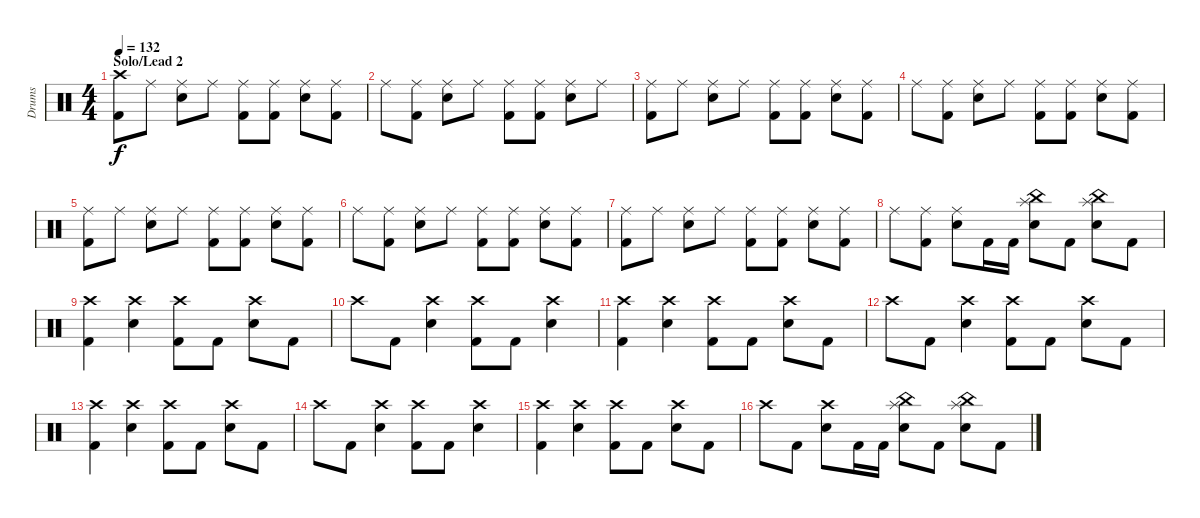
\track ("Drums" "Drums") {instrument percussion}
\staff {score}
\articulation defaults
\ts (4 4)
\section ("" "Solo/Lead 2")
\tempo 132
\clef neutral
\ks c
("Crash high (hit)" "Kick (hit) 2").8{dy f} "Ride (middle)".8 ("Ride (middle)" "Electric Snare (hit)").8 "Ride (middle)".8 ("Ride (middle)" "Kick (hit) 2").8 ("Ride (middle)" "Kick (hit) 2").8 ("Ride (middle)" "Electric Snare (hit)").8 ("Ride (middle)" "Kick (hit) 2").8 |
"Ride (middle)".8 ("Ride (middle)" "Kick (hit) 2").8 ("Ride (middle)" "Electric Snare (hit)").8 "Ride (middle)".8 ("Ride (middle)" "Kick (hit) 2").8 ("Ride (middle)" "Kick (hit) 2").8 ("Ride (middle)" "Electric Snare (hit)").8 "Ride (middle)".8 |
("Ride (middle)" "Kick (hit) 2").8 "Ride (middle)".8 ("Ride (middle)" "Electric Snare (hit)").8 "Ride (middle)".8 ("Ride (middle)" "Kick (hit) 2").8 ("Ride (middle)" "Kick (hit) 2").8 ("Ride (middle)" "Electric Snare (hit)").8 ("Ride (middle)" "Kick (hit) 2").8 |
"Ride (middle)".8 ("Ride (middle)" "Kick (hit) 2").8 ("Ride (middle)" "Electric Snare (hit)").8 "Ride (middle)".8 ("Ride (middle)" "Kick (hit) 2").8 ("Ride (middle)" "Kick (hit) 2").8 ("Ride (middle)" "Electric Snare (hit)").8 ("Ride (middle)" "Kick (hit) 2").8 |
("Ride (middle)" "Kick (hit) 2").8 "Ride (middle)".8 ("Ride (middle)" "Electric Snare (hit)").8 "Ride (middle)".8 ("Ride (middle)" "Kick (hit) 2").8 ("Ride (middle)" "Kick (hit) 2").8 ("Ride (middle)" "Electric Snare (hit)").8 ("Ride (middle)" "Kick (hit) 2").8 |
"Ride (middle)".8 ("Ride (middle)" "Kick (hit) 2").8 ("Ride (middle)" "Electric Snare (hit)").8 "Ride (middle)".8 ("Ride (middle)" "Kick (hit) 2").8 ("Ride (middle)" "Kick (hit) 2").8 ("Ride (middle)" "Electric Snare (hit)").8 ("Ride (middle)" "Kick (hit) 2").8 |
("Ride (middle)" "Kick (hit) 2").8 "Ride (middle)".8 ("Ride (middle)" "Electric Snare (hit)").8 "Ride (middle)".8 ("Ride (middle)" "Kick (hit) 2").8 ("Ride (middle)" "Kick (hit) 2").8 ("Ride (middle)" "Electric Snare (hit)").8 ("Ride (middle)" "Kick (hit) 2").8 |
"Ride (middle)".8 ("Ride (middle)" "Kick (hit) 2").8 ("Ride (middle)" "Electric Snare (hit)").8 "Kick (hit) 2".16 "Kick (hit) 2".16 ("China (hit)" "Splash (hit)" "Electric Snare (hit)").8 "Kick (hit) 2".8 ("China (hit)" "Splash (hit)" "Electric Snare (hit)").8 "Kick (hit) 2".8 |
("Crash high (hit)" "Kick (hit) 2").4 ("Crash high (hit)" "Electric Snare (hit)").4 ("Crash high (hit)" "Kick (hit) 2").8 "Kick (hit) 2".8 ("Crash high (hit)" "Electric Snare (hit)").8 "Kick (hit) 2".8 |
"Crash high (hit)".8 "Kick (hit) 2".8 ("Crash high (hit)" "Electric Snare (hit)").4 ("Crash high (hit)" "Kick (hit) 2").8 "Kick (hit) 2".8 ("Crash high (hit)" "Electric Snare (hit)").4 |
("Crash high (hit)" "Kick (hit) 2").4 ("Crash high (hit)" "Electric Snare (hit)").4 ("Crash high (hit)" "Kick (hit) 2").8 "Kick (hit) 2".8 ("Crash high (hit)" "Electric Snare (hit)").8 "Kick (hit) 2".8 |
"Crash high (hit)".8 "Kick (hit) 2".8 ("Crash high (hit)" "Electric Snare (hit)").4 ("Crash high (hit)" "Kick (hit) 2").8 "Kick (hit) 2".8 ("Crash high (hit)" "Electric Snare (hit)").8 "Kick (hit) 2".8 |
("Crash high (hit)" "Kick (hit) 2").4 ("Crash high (hit)" "Electric Snare (hit)").4 ("Crash high (hit)" "Kick (hit) 2").8 "Kick (hit) 2".8 ("Crash high (hit)" "Electric Snare (hit)").8 "Kick (hit) 2".8 |
"Crash high (hit)".8 "Kick (hit) 2".8 ("Crash high (hit)" "Electric Snare (hit)").4 ("Crash high (hit)" "Kick (hit) 2").8 "Kick (hit) 2".8 ("Crash high (hit)" "Electric Snare (hit)").4 |
("Crash high (hit)" "Kick (hit) 2").4 ("Crash high (hit)" "Electric Snare (hit)").4 ("Crash high (hit)" "Kick (hit) 2").8 "Kick (hit) 2".8 ("Crash high (hit)" "Electric Snare (hit)").8 "Kick (hit) 2".8 |
"Crash high (hit)".8 "Kick (hit) 2".8 ("Crash high (hit)" "Electric Snare (hit)").8 "Kick (hit) 2".16 "Kick (hit) 2".16 ("China (hit)" "Splash (hit)" "Electric Snare (hit)").8 "Kick (hit) 2".8 ("China (hit)" "Splash (hit)" "Electric Snare (hit)").8 "Kick (hit) 2".8
